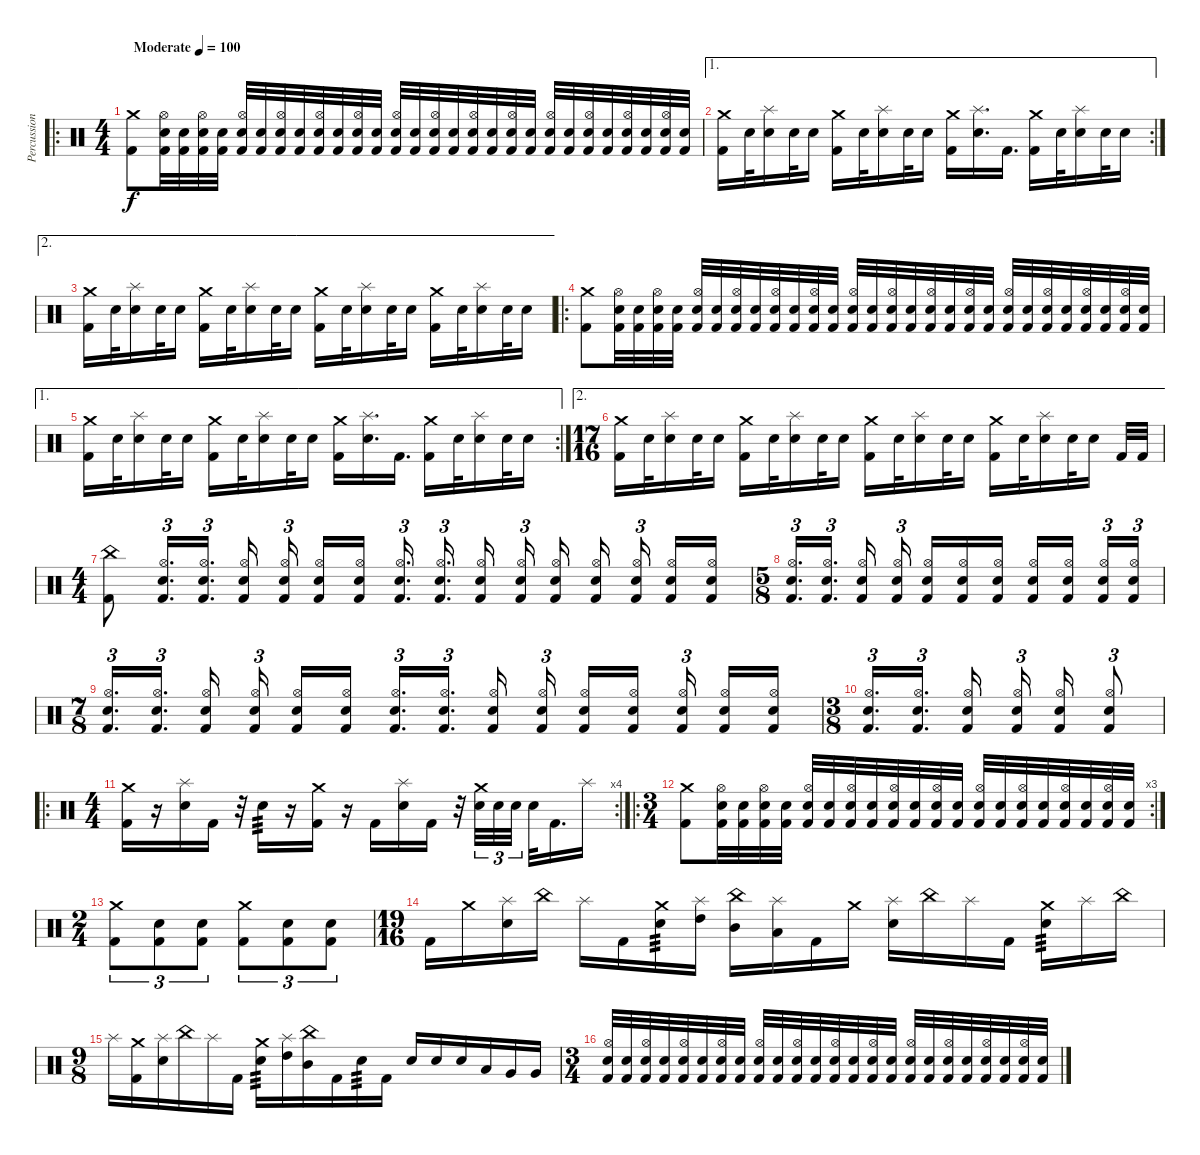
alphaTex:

\track ("Percussion" "Percussion") {instrument percussion}
\staff {score}
\articulation defaults
\ro
\ts (4 4)
\tempo (100 "Moderate")
\clef neutral
\ks c
("Crash medium (hit)" "Kick (hit) 2").8{dy f} ("Hi-Hat (open)" "Electric Snare (hit)" "Kick (hit) 2").32 ("Electric Snare (hit)" "Kick (hit) 2").32 ("Hi-Hat (open)" "Electric Snare (hit)" "Kick (hit) 2").32 ("Electric Snare (hit)" "Kick (hit) 2").32 ("Hi-Hat (open)" "Electric Snare (hit)" "Kick (hit) 2").32 ("Electric Snare (hit)" "Kick (hit) 2").32 ("Hi-Hat (open)" "Electric Snare (hit)" "Kick (hit) 2").32 ("Electric Snare (hit)" "Kick (hit) 2").32 ("Hi-Hat (open)" "Electric Snare (hit)" "Kick (hit) 2").32 ("Electric Snare (hit)" "Kick (hit) 2").32 ("Hi-Hat (open)" "Electric Snare (hit)" "Kick (hit) 2").32 ("Electric Snare (hit)" "Kick (hit) 2").32 ("Hi-Hat (open)" "Electric Snare (hit)" "Kick (hit) 2").32 ("Electric Snare (hit)" "Kick (hit) 2").32 ("Hi-Hat (open)" "Electric Snare (hit)" "Kick (hit) 2").32 ("Electric Snare (hit)" "Kick (hit) 2").32 ("Hi-Hat (open)" "Electric Snare (hit)" "Kick (hit) 2").32 ("Electric Snare (hit)" "Kick (hit) 2").32 ("Hi-Hat (open)" "Electric Snare (hit)" "Kick (hit) 2").32 ("Electric Snare (hit)" "Kick (hit) 2").32 ("Hi-Hat (open)" "Electric Snare (hit)" "Kick (hit) 2").32 ("Electric Snare (hit)" "Kick (hit) 2").32 ("Hi-Hat (open)" "Electric Snare (hit)" "Kick (hit) 2").32 ("Electric Snare (hit)" "Kick (hit) 2").32 ("Hi-Hat (open)" "Electric Snare (hit)" "Kick (hit) 2").32 ("Electric Snare (hit)" "Kick (hit) 2").32 ("Hi-Hat (open)" "Electric Snare (hit)" "Kick (hit) 2").32 ("Electric Snare (hit)" "Kick (hit) 2").32 |
\ae 1
\rc 2
("Crash medium (hit)" "Kick (hit) 2").16 "Electric Snare (hit)".32 ("Splash (hit)" "Electric Snare (hit)").16 "Electric Snare (hit)".32 "Electric Snare (hit)".16 ("Crash medium (hit)" "Kick (hit) 2").16 "Electric Snare (hit)".32 ("Splash (hit)" "Electric Snare (hit)").16 "Electric Snare (hit)".32 "Electric Snare (hit)".16 ("Crash medium (hit)" "Kick (hit) 2").16 ("Splash (hit)" "Electric Snare (hit)").16{d} "Kick (hit) 2".16{d} ("Crash medium (hit)" "Kick (hit) 2").16 "Electric Snare (hit)".32 ("Splash (hit)" "Electric Snare (hit)").16 "Electric Snare (hit)".32 "Electric Snare (hit)".16 |
\ae 2
("Crash medium (hit)" "Kick (hit) 2").16 "Electric Snare (hit)".32 ("Splash (hit)" "Electric Snare (hit)").16 "Electric Snare (hit)".32 "Electric Snare (hit)".16 ("Crash medium (hit)" "Kick (hit) 2").16 "Electric Snare (hit)".32 ("Splash (hit)" "Electric Snare (hit)").16 "Electric Snare (hit)".32 "Electric Snare (hit)".16 ("Crash medium (hit)" "Kick (hit) 2").16 "Electric Snare (hit)".32 ("Splash (hit)" "Electric Snare (hit)").16 "Electric Snare (hit)".32 "Electric Snare (hit)".16 ("Crash medium (hit)" "Kick (hit) 2").16 "Electric Snare (hit)".32 ("Splash (hit)" "Electric Snare (hit)").16 "Electric Snare (hit)".32 "Electric Snare (hit)".16 |
\ro
("Crash medium (hit)" "Kick (hit) 2").8 ("Hi-Hat (open)" "Electric Snare (hit)" "Kick (hit) 2").32 ("Electric Snare (hit)" "Kick (hit) 2").32 ("Hi-Hat (open)" "Electric Snare (hit)" "Kick (hit) 2").32 ("Electric Snare (hit)" "Kick (hit) 2").32 ("Hi-Hat (open)" "Electric Snare (hit)" "Kick (hit) 2").32 ("Electric Snare (hit)" "Kick (hit) 2").32 ("Hi-Hat (open)" "Electric Snare (hit)" "Kick (hit) 2").32 ("Electric Snare (hit)" "Kick (hit) 2").32 ("Hi-Hat (open)" "Electric Snare (hit)" "Kick (hit) 2").32 ("Electric Snare (hit)" "Kick (hit) 2").32 ("Hi-Hat (open)" "Electric Snare (hit)" "Kick (hit) 2").32 ("Electric Snare (hit)" "Kick (hit) 2").32 ("Hi-Hat (open)" "Electric Snare (hit)" "Kick (hit) 2").32 ("Electric Snare (hit)" "Kick (hit) 2").32 ("Hi-Hat (open)" "Electric Snare (hit)" "Kick (hit) 2").32 ("Electric Snare (hit)" "Kick (hit) 2").32 ("Hi-Hat (open)" "Electric Snare (hit)" "Kick (hit) 2").32 ("Electric Snare (hit)" "Kick (hit) 2").32 ("Hi-Hat (open)" "Electric Snare (hit)" "Kick (hit) 2").32 ("Electric Snare (hit)" "Kick (hit) 2").32 ("Hi-Hat (open)" "Electric Snare (hit)" "Kick (hit) 2").32 ("Electric Snare (hit)" "Kick (hit) 2").32 ("Hi-Hat (open)" "Electric Snare (hit)" "Kick (hit) 2").32 ("Electric Snare (hit)" "Kick (hit) 2").32 ("Hi-Hat (open)" "Electric Snare (hit)" "Kick (hit) 2").32 ("Electric Snare (hit)" "Kick (hit) 2").32 ("Hi-Hat (open)" "Electric Snare (hit)" "Kick (hit) 2").32 ("Electric Snare (hit)" "Kick (hit) 2").32 |
\ae 1
\rc 2
("Crash medium (hit)" "Kick (hit) 2").16 "Electric Snare (hit)".32 ("Splash (hit)" "Electric Snare (hit)").16 "Electric Snare (hit)".32 "Electric Snare (hit)".16 ("Crash medium (hit)" "Kick (hit) 2").16 "Electric Snare (hit)".32 ("Splash (hit)" "Electric Snare (hit)").16 "Electric Snare (hit)".32 "Electric Snare (hit)".16 ("Crash medium (hit)" "Kick (hit) 2").16 ("Splash (hit)" "Electric Snare (hit)").16{d} "Kick (hit) 2".16{d} ("Crash medium (hit)" "Kick (hit) 2").16 "Electric Snare (hit)".32 ("Splash (hit)" "Electric Snare (hit)").16 "Electric Snare (hit)".32 "Electric Snare (hit)".16 |
\ae 2
\ts (17 16)
("Crash medium (hit)" "Kick (hit) 2").16 "Electric Snare (hit)".32 ("Splash (hit)" "Electric Snare (hit)").16 "Electric Snare (hit)".32 "Electric Snare (hit)".16 ("Crash medium (hit)" "Kick (hit) 2").16 "Electric Snare (hit)".32 ("Splash (hit)" "Electric Snare (hit)").16 "Electric Snare (hit)".32 "Electric Snare (hit)".16 ("Crash medium (hit)" "Kick (hit) 2").16 "Electric Snare (hit)".32 ("Splash (hit)" "Electric Snare (hit)").16 "Electric Snare (hit)".32 "Electric Snare (hit)".16 ("Crash medium (hit)" "Kick (hit) 2").16 "Electric Snare (hit)".32 ("Splash (hit)" "Electric Snare (hit)").16 "Electric Snare (hit)".32 "Electric Snare (hit)".16 "Kick (hit) 2".32 "Kick (hit) 2".32 |
\ts (4 4)
("China (hit)" "Kick (hit) 2").8 ("Hi-Hat (open)" "Electric Snare (hit)" "Kick (hit) 2").16{d tu (3 2)} ("Hi-Hat (open)" "Electric Snare (hit)" "Kick (hit) 2").16{d tu (3 2)} ("Hi-Hat (open)" "Electric Snare (hit)" "Kick (hit) 2").16{beam splitsecondary} ("Hi-Hat (open)" "Electric Snare (hit)" "Kick (hit) 2").16{tu (3 2) beam splitsecondary} ("Hi-Hat (open)" "Electric Snare (hit)" "Kick (hit) 2").16 ("Hi-Hat (open)" "Electric Snare (hit)" "Kick (hit) 2").16{beam splitsecondary} ("Hi-Hat (open)" "Electric Snare (hit)" "Kick (hit) 2").16{d tu (3 2)} ("Hi-Hat (open)" "Electric Snare (hit)" "Kick (hit) 2").16{d tu (3 2) beam splitsecondary} ("Hi-Hat (open)" "Electric Snare (hit)" "Kick (hit) 2").16{beam splitsecondary} ("Hi-Hat (open)" "Electric Snare (hit)" "Kick (hit) 2").16{tu (3 2)} ("Hi-Hat (open)" "Electric Snare (hit)" "Kick (hit) 2").16 ("Hi-Hat (open)" "Electric Snare (hit)" "Kick (hit) 2").16{beam splitsecondary} ("Hi-Hat (open)" "Electric Snare (hit)" "Kick (hit) 2").16{tu (3 2) beam splitsecondary} ("Hi-Hat (open)" "Electric Snare (hit)" "Kick (hit) 2").16 ("Hi-Hat (open)" "Electric Snare (hit)" "Kick (hit) 2").16 |
\ts (5 8)
("Hi-Hat (open)" "Electric Snare (hit)" "Kick (hit) 2").16{d tu (3 2)} ("Hi-Hat (open)" "Electric Snare (hit)" "Kick (hit) 2").16{d tu (3 2)} ("Hi-Hat (open)" "Electric Snare (hit)" "Kick (hit) 2").16{beam splitsecondary} ("Hi-Hat (open)" "Electric Snare (hit)" "Kick (hit) 2").16{tu (3 2)} ("Hi-Hat (open)" "Electric Snare (hit)" "Kick (hit) 2").16 ("Hi-Hat (open)" "Electric Snare (hit)" "Kick (hit) 2").16 ("Hi-Hat (open)" "Electric Snare (hit)" "Kick (hit) 2").16 ("Hi-Hat (open)" "Electric Snare (hit)" "Kick (hit) 2").16 ("Hi-Hat (open)" "Electric Snare (hit)" "Kick (hit) 2").16 ("Hi-Hat (open)" "Electric Snare (hit)" "Kick (hit) 2").16{tu (3 2)} ("Hi-Hat (open)" "Electric Snare (hit)" "Kick (hit) 2").16{tu (3 2)} |
\ts (7 8)
("Hi-Hat (open)" "Electric Snare (hit)" "Kick (hit) 2").16{d tu (3 2)} ("Hi-Hat (open)" "Electric Snare (hit)" "Kick (hit) 2").16{d tu (3 2)} ("Hi-Hat (open)" "Electric Snare (hit)" "Kick (hit) 2").16{beam splitsecondary} ("Hi-Hat (open)" "Electric Snare (hit)" "Kick (hit) 2").16{tu (3 2)} ("Hi-Hat (open)" "Electric Snare (hit)" "Kick (hit) 2").16 ("Hi-Hat (open)" "Electric Snare (hit)" "Kick (hit) 2").16 ("Hi-Hat (open)" "Electric Snare (hit)" "Kick (hit) 2").16{d tu (3 2)} ("Hi-Hat (open)" "Electric Snare (hit)" "Kick (hit) 2").16{d tu (3 2)} ("Hi-Hat (open)" "Electric Snare (hit)" "Kick (hit) 2").16 ("Hi-Hat (open)" "Electric Snare (hit)" "Kick (hit) 2").16{tu (3 2)} ("Hi-Hat (open)" "Electric Snare (hit)" "Kick (hit) 2").16 ("Hi-Hat (open)" "Electric Snare (hit)" "Kick (hit) 2").16 ("Hi-Hat (open)" "Electric Snare (hit)" "Kick (hit) 2").16{tu (3 2)} ("Hi-Hat (open)" "Electric Snare (hit)" "Kick (hit) 2").16 ("Hi-Hat (open)" "Electric Snare (hit)" "Kick (hit) 2").16 |
\ts (3 8)
("Hi-Hat (open)" "Electric Snare (hit)" "Kick (hit) 2").16{d tu (3 2)} ("Hi-Hat (open)" "Electric Snare (hit)" "Kick (hit) 2").16{d tu (3 2)} ("Hi-Hat (open)" "Electric Snare (hit)" "Kick (hit) 2").16{beam splitsecondary} ("Hi-Hat (open)" "Electric Snare (hit)" "Kick (hit) 2").16{tu (3 2)} ("Hi-Hat (open)" "Electric Snare (hit)" "Kick (hit) 2").16 ("Hi-Hat (open)" "Electric Snare (hit)" "Kick (hit) 2").8{tu (3 2)} |
\ro
\rc 4
\ts (4 4)
("Crash medium (hit)" "Kick (hit) 2").16 r.16 ("Splash (hit)" "Electric Snare (hit)").16 "Kick (hit) 2".16 r.32 "Electric Snare (hit)".16{tp 3} r.16 ("Crash medium (hit)" "Kick (hit) 2").16 r.16 "Kick (hit) 2".16 ("Splash (hit)" "Electric Snare (hit)").16 "Kick (hit) 2".16 r.32 ("Crash medium (hit)" "Electric Snare (hit)").32{tu (3 2)} "Electric Snare (hit)".32{tu (3 2)} "Electric Snare (hit)".32{tu (3 2) beam splitsecondary} "Electric Snare (hit)".32 "Kick (hit) 2".16{d} "Splash (hit)".16 |
\ro
\rc 3
\ts (3 4)
("Crash medium (hit)" "Kick (hit) 2").8 ("Hi-Hat (open)" "Electric Snare (hit)" "Kick (hit) 2").32 ("Electric Snare (hit)" "Kick (hit) 2").32 ("Hi-Hat (open)" "Electric Snare (hit)" "Kick (hit) 2").32 ("Electric Snare (hit)" "Kick (hit) 2").32 ("Hi-Hat (open)" "Electric Snare (hit)" "Kick (hit) 2").32 ("Electric Snare (hit)" "Kick (hit) 2").32 ("Hi-Hat (open)" "Electric Snare (hit)" "Kick (hit) 2").32 ("Electric Snare (hit)" "Kick (hit) 2").32 ("Hi-Hat (open)" "Electric Snare (hit)" "Kick (hit) 2").32 ("Electric Snare (hit)" "Kick (hit) 2").32 ("Hi-Hat (open)" "Electric Snare (hit)" "Kick (hit) 2").32 ("Electric Snare (hit)" "Kick (hit) 2").32 ("Hi-Hat (open)" "Electric Snare (hit)" "Kick (hit) 2").32 ("Electric Snare (hit)" "Kick (hit) 2").32 ("Hi-Hat (open)" "Electric Snare (hit)" "Kick (hit) 2").32 ("Electric Snare (hit)" "Kick (hit) 2").32 ("Hi-Hat (open)" "Electric Snare (hit)" "Kick (hit) 2").32 ("Electric Snare (hit)" "Kick (hit) 2").32 ("Hi-Hat (open)" "Electric Snare (hit)" "Kick (hit) 2").32 ("Electric Snare (hit)" "Kick (hit) 2").32 |
\ts (2 4)
("Crash medium (hit)" "Kick (hit) 2").8{tu (3 2)} ("Electric Snare (hit)" "Kick (hit) 2").8{tu (3 2)} ("Electric Snare (hit)" "Kick (hit) 2").8{tu (3 2)} ("Crash medium (hit)" "Kick (hit) 2").8{tu (3 2)} ("Electric Snare (hit)" "Kick (hit) 2").8{tu (3 2)} ("Electric Snare (hit)" "Kick (hit) 2").8{tu (3 2)} |
\ts (19 16)
"Kick (hit) 2".16 "Crash medium (hit)".16 ("Splash (hit)" "Electric Snare (hit)").16 "China (hit)".16 "Splash (hit)".16 "Kick (hit) 2".16 ("Crash medium (hit)" "Electric Snare (hit)").16{tp 3} ("Splash (hit)" "High Tom (hit)").16 ("China (hit)" "Mid Tom (hit)").16 ("Splash (hit)" "Low Tom (hit)").16 "Kick (hit) 2".16 "Crash medium (hit)".16 ("Splash (hit)" "Electric Snare (hit)").16 "China (hit)".16 "Splash (hit)".16 "Kick (hit) 2".16 ("Crash medium (hit)" "Electric Snare (hit)").16{tp 3} "Splash (hit)".16 "China (hit)".16 |
\ts (9 8)
"Splash (hit)".16 ("Crash medium (hit)" "Kick (hit) 2").16 ("Splash (hit)" "Electric Snare (hit)").16 "China (hit)".16 "Splash (hit)".16 "Kick (hit) 2".16 ("Crash medium (hit)" "Electric Snare (hit)").16{tp 3} ("Splash (hit)" "High Tom (hit)").16 ("China (hit)" "Mid Tom (hit)").16 "Kick (hit) 2".16 "Electric Snare (hit)".16{tp 3} "Kick (hit) 2".16 "Electric Snare (hit)".16 "Electric Snare (hit)".16 "Electric Snare (hit)".16 "Low Tom (hit)".16 "Very Low Tom (hit)".16 "Very Low Tom (hit)".16 |
\ts (3 4)
("Hi-Hat (open)" "Electric Snare (hit)" "Kick (hit) 2").32 ("Electric Snare (hit)" "Kick (hit) 2").32 ("Hi-Hat (open)" "Electric Snare (hit)" "Kick (hit) 2").32 ("Electric Snare (hit)" "Kick (hit) 2").32 ("Hi-Hat (open)" "Electric Snare (hit)" "Kick (hit) 2").32 ("Electric Snare (hit)" "Kick (hit) 2").32 ("Hi-Hat (open)" "Electric Snare (hit)" "Kick (hit) 2").32 ("Electric Snare (hit)" "Kick (hit) 2").32 ("Hi-Hat (open)" "Electric Snare (hit)" "Kick (hit) 2").32 ("Electric Snare (hit)" "Kick (hit) 2").32 ("Hi-Hat (open)" "Electric Snare (hit)" "Kick (hit) 2").32 ("Electric Snare (hit)" "Kick (hit) 2").32 ("Hi-Hat (open)" "Electric Snare (hit)" "Kick (hit) 2").32 ("Electric Snare (hit)" "Kick (hit) 2").32 ("Hi-Hat (open)" "Electric Snare (hit)" "Kick (hit) 2").32 ("Electric Snare (hit)" "Kick (hit) 2").32 ("Hi-Hat (open)" "Electric Snare (hit)" "Kick (hit) 2").32 ("Electric Snare (hit)" "Kick (hit) 2").32 ("Hi-Hat (open)" "Electric Snare (hit)" "Kick (hit) 2").32 ("Electric Snare (hit)" "Kick (hit) 2").32 ("Hi-Hat (open)" "Electric Snare (hit)" "Kick (hit) 2").32 ("Electric Snare (hit)" "Kick (hit) 2").32 ("Hi-Hat (open)" "Electric Snare (hit)" "Kick (hit) 2").32 ("Electric Snare (hit)" "Kick (hit) 2").32
